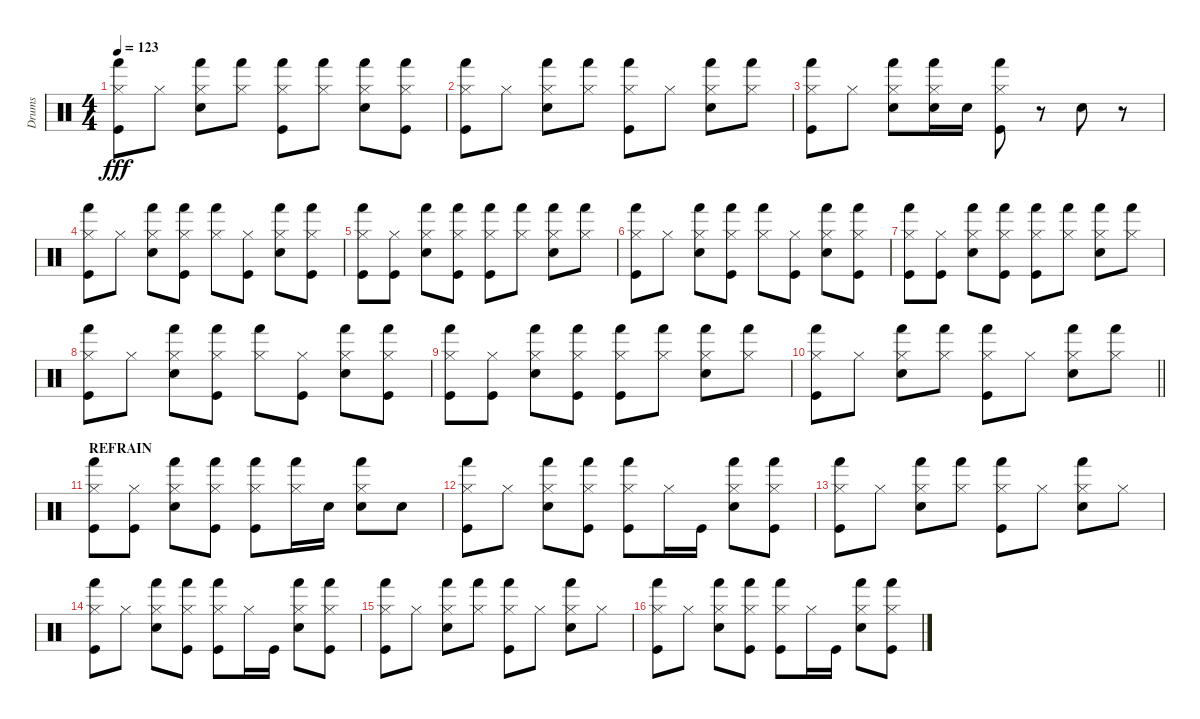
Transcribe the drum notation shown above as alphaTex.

\track ("Drums" "Drums") {instrument percussion}
\staff {score}
\articulation defaults
\ts (4 4)
\tempo 123
\clef neutral
\ks c
("Hi-Hat (closed)" "Hand (hit)" "Kick (hit)").8{dy fff} "Hi-Hat (closed)".8 ("Hi-Hat (closed)" "Hand (hit)" "Electric Snare (hit)").8 ("Hi-Hat (closed)" "Hand (hit)").8 ("Hi-Hat (closed)" "Kick (hit)" "Hand (hit)").8 ("Hand (hit)" "Hi-Hat (closed)").8 ("Hand (hit)" "Hi-Hat (closed)" "Electric Snare (hit)").8 ("Hi-Hat (closed)" "Hand (hit)" "Kick (hit)").8 |
("Hi-Hat (closed)" "Kick (hit)" "Hand (hit)").8 "Hi-Hat (closed)".8 ("Electric Snare (hit)" "Hi-Hat (closed)" "Hand (hit)").8 ("Hand (hit)" "Hi-Hat (closed)").8 ("Hi-Hat (closed)" "Kick (hit)" "Hand (hit)").8 "Hi-Hat (closed)".8 ("Hi-Hat (closed)" "Electric Snare (hit)" "Hand (hit)").8 ("Hi-Hat (closed)" "Hand (hit)").8 |
("Hi-Hat (closed)" "Kick (hit)" "Hand (hit)").8 "Hi-Hat (closed)".8 ("Hi-Hat (closed)" "Electric Snare (hit)" "Hand (hit)").8 ("Hi-Hat (closed)" "Electric Snare (hit)" "Hand (hit)").16 "Electric Snare (hit)".16 ("Hi-Hat (closed)" "Hand (hit)" "Kick (hit)").8 r.8 "Electric Snare (hit)".8 r.8 |
("Kick (hit)" "Hand (hit)" "Hi-Hat (closed)").8 "Hi-Hat (closed)".8 ("Electric Snare (hit)" "Hand (hit)" "Hi-Hat (closed)").8 ("Hi-Hat (closed)" "Hand (hit)" "Kick (hit)").8 ("Hi-Hat (closed)" "Hand (hit)").8 ("Kick (hit)" "Hi-Hat (closed)").8 ("Electric Snare (hit)" "Hi-Hat (closed)" "Hand (hit)").8 ("Hand (hit)" "Hi-Hat (closed)" "Kick (hit)").8 |
("Hand (hit)" "Kick (hit)" "Hi-Hat (closed)").8 ("Kick (hit)" "Hi-Hat (closed)").8 ("Hand (hit)" "Hi-Hat (closed)" "Electric Snare (hit)").8 ("Kick (hit)" "Hand (hit)" "Hi-Hat (closed)").8 ("Kick (hit)" "Hi-Hat (closed)" "Hand (hit)").8 ("Hand (hit)" "Hi-Hat (closed)").8 ("Electric Snare (hit)" "Hand (hit)" "Hi-Hat (closed)").8 ("Hand (hit)" "Hi-Hat (closed)").8 |
("Kick (hit)" "Hand (hit)" "Hi-Hat (closed)").8 "Hi-Hat (closed)".8 ("Electric Snare (hit)" "Hand (hit)" "Hi-Hat (closed)").8 ("Hi-Hat (closed)" "Hand (hit)" "Kick (hit)").8 ("Hi-Hat (closed)" "Hand (hit)").8 ("Kick (hit)" "Hi-Hat (closed)").8 ("Electric Snare (hit)" "Hi-Hat (closed)" "Hand (hit)").8 ("Hand (hit)" "Hi-Hat (closed)" "Kick (hit)").8 |
("Hand (hit)" "Kick (hit)" "Hi-Hat (closed)").8 ("Kick (hit)" "Hi-Hat (closed)").8 ("Hand (hit)" "Hi-Hat (closed)" "Electric Snare (hit)").8 ("Kick (hit)" "Hand (hit)" "Hi-Hat (closed)").8 ("Kick (hit)" "Hi-Hat (closed)" "Hand (hit)").8 ("Hand (hit)" "Hi-Hat (closed)").8 ("Electric Snare (hit)" "Hand (hit)" "Hi-Hat (closed)").8 ("Hand (hit)" "Hi-Hat (closed)").8 |
("Kick (hit)" "Hand (hit)" "Hi-Hat (closed)").8 "Hi-Hat (closed)".8 ("Electric Snare (hit)" "Hand (hit)" "Hi-Hat (closed)").8 ("Hi-Hat (closed)" "Hand (hit)" "Kick (hit)").8 ("Hi-Hat (closed)" "Hand (hit)").8 ("Kick (hit)" "Hi-Hat (closed)").8 ("Electric Snare (hit)" "Hi-Hat (closed)" "Hand (hit)").8 ("Hand (hit)" "Hi-Hat (closed)" "Kick (hit)").8 |
("Hand (hit)" "Kick (hit)" "Hi-Hat (closed)").8 ("Kick (hit)" "Hi-Hat (closed)").8 ("Hand (hit)" "Hi-Hat (closed)" "Electric Snare (hit)").8 ("Kick (hit)" "Hand (hit)" "Hi-Hat (closed)").8 ("Kick (hit)" "Hi-Hat (closed)" "Hand (hit)").8 ("Hand (hit)" "Hi-Hat (closed)").8 ("Electric Snare (hit)" "Hand (hit)" "Hi-Hat (closed)").8 ("Hand (hit)" "Hi-Hat (closed)").8 |
\barLineRight lightlight
("Hi-Hat (closed)" "Kick (hit)" "Hand (hit)").8 "Hi-Hat (closed)".8 ("Electric Snare (hit)" "Hi-Hat (closed)" "Hand (hit)").8 ("Hi-Hat (closed)" "Hand (hit)").8 ("Hi-Hat (closed)" "Hand (hit)" "Kick (hit)").8 "Hi-Hat (closed)".8 ("Hi-Hat (closed)" "Electric Snare (hit)" "Hand (hit)").8 ("Hi-Hat (closed)" "Hand (hit)").8 |
\section ("" "REFRAIN")
("Hi-Hat (closed)" "Hand (hit)" "Kick (hit)").8 ("Kick (hit)" "Hi-Hat (closed)").8 ("Hand (hit)" "Hi-Hat (closed)" "Electric Snare (hit)").8 ("Hi-Hat (closed)" "Kick (hit)" "Hand (hit)").8 ("Hi-Hat (closed)" "Hand (hit)" "Kick (hit)").8 ("Hand (hit)" "Hi-Hat (closed)").16 "Electric Snare (hit)".16 ("Hand (hit)" "Hi-Hat (closed)" "Electric Snare (hit)").8 "Electric Snare (hit)".8 |
("Hand (hit)" "Hi-Hat (closed)" "Kick (hit)").8 "Hi-Hat (closed)".8 ("Hi-Hat (closed)" "Hand (hit)" "Electric Snare (hit)").8 ("Hi-Hat (closed)" "Hand (hit)" "Kick (hit)").8 ("Hi-Hat (closed)" "Hand (hit)" "Kick (hit)").8 "Hi-Hat (closed)".16 "Kick (hit)".16 ("Hi-Hat (closed)" "Electric Snare (hit)" "Hand (hit)").8 ("Hi-Hat (closed)" "Hand (hit)" "Kick (hit)").8 |
("Hi-Hat (closed)" "Kick (hit)" "Hand (hit)").8 "Hi-Hat (closed)".8 ("Electric Snare (hit)" "Hand (hit)" "Hi-Hat (closed)").8 ("Hi-Hat (closed)" "Hand (hit)").8 ("Hi-Hat (closed)" "Kick (hit)" "Hand (hit)").8 "Hi-Hat (closed)".8 ("Electric Snare (hit)" "Hand (hit)" "Hi-Hat (closed)").8 "Hi-Hat (closed)".8 |
("Hand (hit)" "Hi-Hat (closed)" "Kick (hit)").8 "Hi-Hat (closed)".8 ("Hi-Hat (closed)" "Hand (hit)" "Electric Snare (hit)").8 ("Hi-Hat (closed)" "Hand (hit)" "Kick (hit)").8 ("Hi-Hat (closed)" "Hand (hit)" "Kick (hit)").8 "Hi-Hat (closed)".16 "Kick (hit)".16 ("Hi-Hat (closed)" "Electric Snare (hit)" "Hand (hit)").8 ("Hi-Hat (closed)" "Hand (hit)" "Kick (hit)").8 |
("Hi-Hat (closed)" "Kick (hit)" "Hand (hit)").8 "Hi-Hat (closed)".8 ("Electric Snare (hit)" "Hand (hit)" "Hi-Hat (closed)").8 ("Hi-Hat (closed)" "Hand (hit)").8 ("Hi-Hat (closed)" "Kick (hit)" "Hand (hit)").8 "Hi-Hat (closed)".8 ("Electric Snare (hit)" "Hand (hit)" "Hi-Hat (closed)").8 "Hi-Hat (closed)".8 |
("Hand (hit)" "Hi-Hat (closed)" "Kick (hit)").8 "Hi-Hat (closed)".8 ("Hi-Hat (closed)" "Hand (hit)" "Electric Snare (hit)").8 ("Hi-Hat (closed)" "Hand (hit)" "Kick (hit)").8 ("Hi-Hat (closed)" "Hand (hit)" "Kick (hit)").8 "Hi-Hat (closed)".16 "Kick (hit)".16 ("Hi-Hat (closed)" "Electric Snare (hit)" "Hand (hit)").8 ("Hi-Hat (closed)" "Hand (hit)" "Kick (hit)").8
